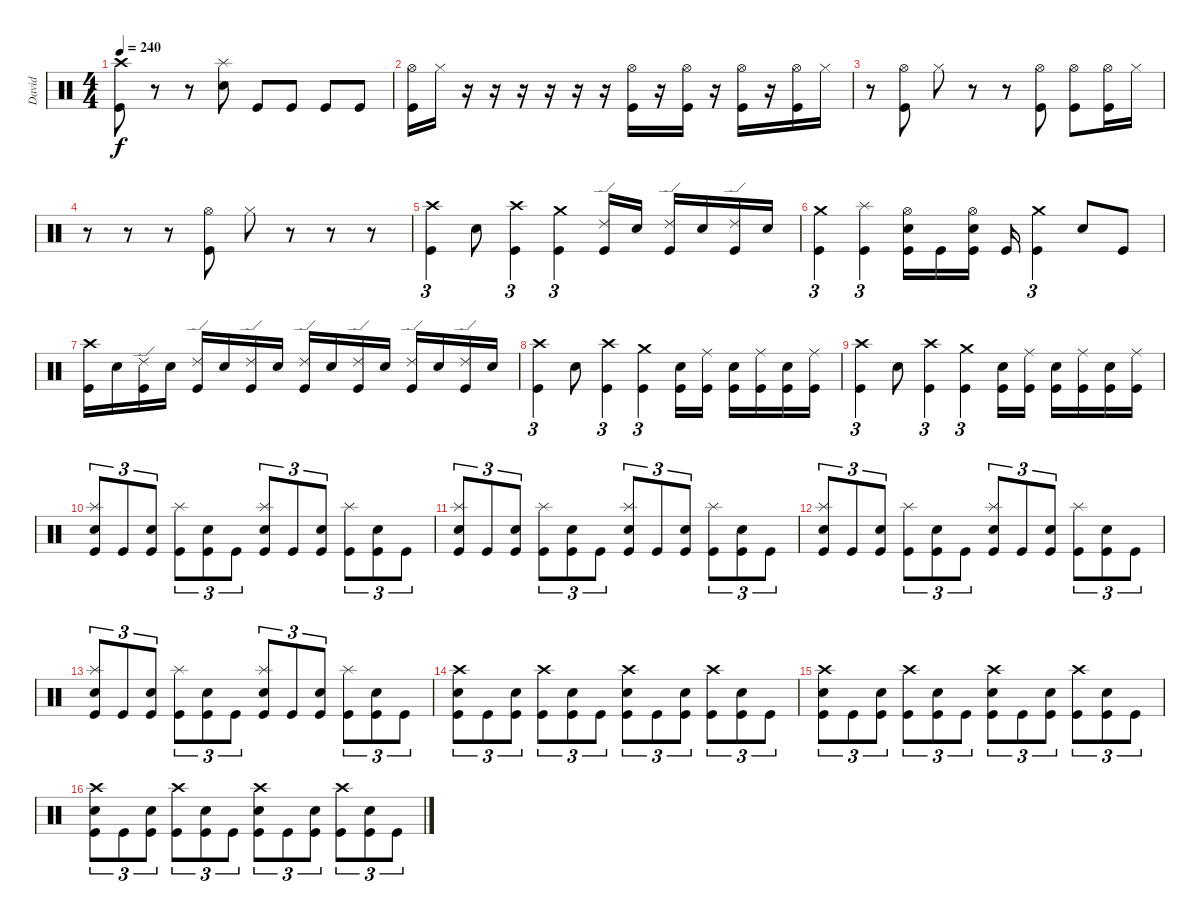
\track ("David" "David") {instrument percussion}
\staff {score}
\articulation defaults
\ts (4 4)
\tempo 240
\clef neutral
\ks c
("Crash high (hit)" "Kick (hit)").8{dy f} r.8 r.8 ("Splash (hit)" "Electric Snare (hit)").8 "Kick (hit)".8 "Kick (hit)".8 "Kick (hit)".8 "Kick (hit)".8 |
("Hi-Hat (open)" "Kick (hit)").16 "Hi-Hat (closed)".16 r.16 r.16 r.16 r.16 r.16 r.16 ("Hi-Hat (open)" "Kick (hit)").16 r.16 ("Hi-Hat (open)" "Kick (hit)").16 r.16 ("Hi-Hat (open)" "Kick (hit)").16 r.16 ("Hi-Hat (open)" "Kick (hit)").16 "Hi-Hat (closed)".16 |
r.8 ("Hi-Hat (open)" "Kick (hit)").8 "Hi-Hat (closed)".8 r.8 r.8 ("Hi-Hat (open)" "Kick (hit)").8 ("Hi-Hat (open)" "Kick (hit)").8 ("Hi-Hat (open)" "Kick (hit)").16 "Hi-Hat (closed)".16 |
r.8 r.8 r.8 ("Hi-Hat (open)" "Kick (hit)").8 "Hi-Hat (closed)".8 r.8 r.8 r.8 |
("Crash high (hit)" "Kick (hit)").4{tu (3 2)} "Electric Snare (hit)".8 ("Crash high (hit)" "Kick (hit)").4{tu (3 2)} ("Crash medium (hit)" "Kick (hit)").4{tu (3 2)} ("Ride (edge) 2" "Kick (hit)").16 "Electric Snare (hit)".16 ("Ride (edge) 2" "Kick (hit)").16 "Electric Snare (hit)".16 ("Ride (edge) 2" "Kick (hit)").16 "Electric Snare (hit)".16 |
("Crash medium (hit)" "Kick (hit)").4{tu (3 2)} ("Splash (hit)" "Kick (hit)").4{tu (3 2)} ("Hi-Hat (open)" "Electric Snare (hit)" "Kick (hit)").16 "Kick (hit)".16 ("Hi-Hat (open)" "Electric Snare (hit)" "Kick (hit)").16 "Kick (hit)".16 ("Crash medium (hit)" "Kick (hit)").4{tu (3 2)} "Electric Snare (hit)".8 "Kick (hit)".8 |
("Crash high (hit)" "Kick (hit)").16 "Electric Snare (hit)".16 ("Ride (edge) 2" "Kick (hit)").16 "Electric Snare (hit)".16 ("Ride (edge) 2" "Kick (hit)").16 "Electric Snare (hit)".16 ("Ride (edge) 2" "Kick (hit)").16 "Electric Snare (hit)".16 ("Ride (edge) 2" "Kick (hit)").16 "Electric Snare (hit)".16 ("Ride (edge) 2" "Kick (hit)").16 "Electric Snare (hit)".16 ("Ride (edge) 2" "Kick (hit)").16 "Electric Snare (hit)".16 ("Ride (edge) 2" "Kick (hit)").16 "Electric Snare (hit)".16 |
("Crash high (hit)" "Kick (hit)").4{tu (3 2)} "Electric Snare (hit)".8 ("Crash high (hit)" "Kick (hit)").4{tu (3 2)} ("Crash medium (hit)" "Kick (hit)").4{tu (3 2)} ("Electric Snare (hit)" "Kick (hit)").16 ("Ride (middle)" "Kick (hit)").16 ("Electric Snare (hit)" "Kick (hit)").16 ("Ride (middle)" "Kick (hit)").16 ("Electric Snare (hit)" "Kick (hit)").16 ("Ride (middle)" "Kick (hit)").16 |
("Crash high (hit)" "Kick (hit)").4{tu (3 2)} "Electric Snare (hit)".8 ("Crash high (hit)" "Kick (hit)").4{tu (3 2)} ("Crash medium (hit)" "Kick (hit)").4{tu (3 2)} ("Electric Snare (hit)" "Kick (hit)").16 ("Ride (middle)" "Kick (hit)").16 ("Electric Snare (hit)" "Kick (hit)").16 ("Ride (middle)" "Kick (hit)").16 ("Electric Snare (hit)" "Kick (hit)").16 ("Ride (middle)" "Kick (hit)").16 |
("Splash (hit)" "Electric Snare (hit)" "Kick (hit)").8{tu (3 2)} "Kick (hit)".8{tu (3 2)} ("Electric Snare (hit)" "Kick (hit)").8{tu (3 2)} ("Splash (hit)" "Kick (hit)").8{tu (3 2)} ("Electric Snare (hit)" "Kick (hit)").8{tu (3 2)} "Kick (hit)".8{tu (3 2)} ("Splash (hit)" "Electric Snare (hit)" "Kick (hit)").8{tu (3 2)} "Kick (hit)".8{tu (3 2)} ("Electric Snare (hit)" "Kick (hit)").8{tu (3 2)} ("Splash (hit)" "Kick (hit)").8{tu (3 2)} ("Electric Snare (hit)" "Kick (hit)").8{tu (3 2)} "Kick (hit)".8{tu (3 2)} |
("Splash (hit)" "Electric Snare (hit)" "Kick (hit)").8{tu (3 2)} "Kick (hit)".8{tu (3 2)} ("Electric Snare (hit)" "Kick (hit)").8{tu (3 2)} ("Splash (hit)" "Kick (hit)").8{tu (3 2)} ("Electric Snare (hit)" "Kick (hit)").8{tu (3 2)} "Kick (hit)".8{tu (3 2)} ("Splash (hit)" "Electric Snare (hit)" "Kick (hit)").8{tu (3 2)} "Kick (hit)".8{tu (3 2)} ("Electric Snare (hit)" "Kick (hit)").8{tu (3 2)} ("Splash (hit)" "Kick (hit)").8{tu (3 2)} ("Electric Snare (hit)" "Kick (hit)").8{tu (3 2)} "Kick (hit)".8{tu (3 2)} |
("Splash (hit)" "Electric Snare (hit)" "Kick (hit)").8{tu (3 2)} "Kick (hit)".8{tu (3 2)} ("Electric Snare (hit)" "Kick (hit)").8{tu (3 2)} ("Splash (hit)" "Kick (hit)").8{tu (3 2)} ("Electric Snare (hit)" "Kick (hit)").8{tu (3 2)} "Kick (hit)".8{tu (3 2)} ("Splash (hit)" "Electric Snare (hit)" "Kick (hit)").8{tu (3 2)} "Kick (hit)".8{tu (3 2)} ("Electric Snare (hit)" "Kick (hit)").8{tu (3 2)} ("Splash (hit)" "Kick (hit)").8{tu (3 2)} ("Electric Snare (hit)" "Kick (hit)").8{tu (3 2)} "Kick (hit)".8{tu (3 2)} |
("Splash (hit)" "Electric Snare (hit)" "Kick (hit)").8{tu (3 2)} "Kick (hit)".8{tu (3 2)} ("Electric Snare (hit)" "Kick (hit)").8{tu (3 2)} ("Splash (hit)" "Kick (hit)").8{tu (3 2)} ("Electric Snare (hit)" "Kick (hit)").8{tu (3 2)} "Kick (hit)".8{tu (3 2)} ("Splash (hit)" "Electric Snare (hit)" "Kick (hit)").8{tu (3 2)} "Kick (hit)".8{tu (3 2)} ("Electric Snare (hit)" "Kick (hit)").8{tu (3 2)} ("Splash (hit)" "Kick (hit)").8{tu (3 2)} ("Electric Snare (hit)" "Kick (hit)").8{tu (3 2)} "Kick (hit)".8{tu (3 2)} |
("Crash high (hit)" "Electric Snare (hit)" "Kick (hit)").8{tu (3 2)} "Kick (hit)".8{tu (3 2)} ("Electric Snare (hit)" "Kick (hit)").8{tu (3 2)} ("Crash high (hit)" "Kick (hit)").8{tu (3 2)} ("Electric Snare (hit)" "Kick (hit)").8{tu (3 2)} "Kick (hit)".8{tu (3 2)} ("Crash high (hit)" "Electric Snare (hit)" "Kick (hit)").8{tu (3 2)} "Kick (hit)".8{tu (3 2)} ("Electric Snare (hit)" "Kick (hit)").8{tu (3 2)} ("Crash high (hit)" "Kick (hit)").8{tu (3 2)} ("Electric Snare (hit)" "Kick (hit)").8{tu (3 2)} "Kick (hit)".8{tu (3 2)} |
("Crash high (hit)" "Electric Snare (hit)" "Kick (hit)").8{tu (3 2)} "Kick (hit)".8{tu (3 2)} ("Electric Snare (hit)" "Kick (hit)").8{tu (3 2)} ("Crash high (hit)" "Kick (hit)").8{tu (3 2)} ("Electric Snare (hit)" "Kick (hit)").8{tu (3 2)} "Kick (hit)".8{tu (3 2)} ("Crash high (hit)" "Electric Snare (hit)" "Kick (hit)").8{tu (3 2)} "Kick (hit)".8{tu (3 2)} ("Electric Snare (hit)" "Kick (hit)").8{tu (3 2)} ("Crash high (hit)" "Kick (hit)").8{tu (3 2)} ("Electric Snare (hit)" "Kick (hit)").8{tu (3 2)} "Kick (hit)".8{tu (3 2)} |
("Crash high (hit)" "Electric Snare (hit)" "Kick (hit)").8{tu (3 2)} "Kick (hit)".8{tu (3 2)} ("Electric Snare (hit)" "Kick (hit)").8{tu (3 2)} ("Crash high (hit)" "Kick (hit)").8{tu (3 2)} ("Electric Snare (hit)" "Kick (hit)").8{tu (3 2)} "Kick (hit)".8{tu (3 2)} ("Crash high (hit)" "Electric Snare (hit)" "Kick (hit)").8{tu (3 2)} "Kick (hit)".8{tu (3 2)} ("Electric Snare (hit)" "Kick (hit)").8{tu (3 2)} ("Crash high (hit)" "Kick (hit)").8{tu (3 2)} ("Electric Snare (hit)" "Kick (hit)").8{tu (3 2)} "Kick (hit)".8{tu (3 2)}
